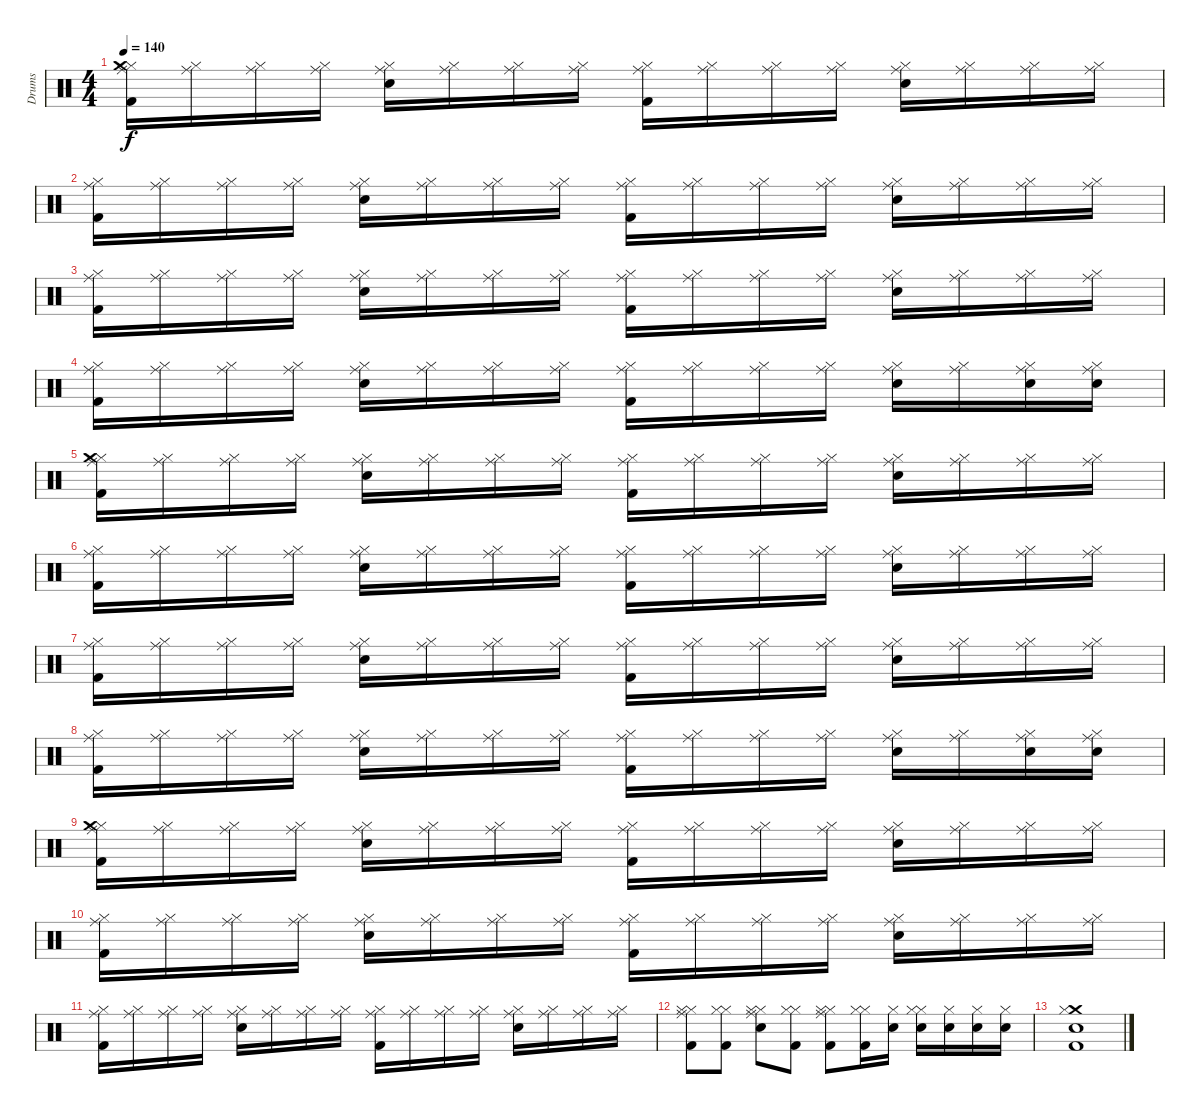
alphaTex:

\track ("Drums" "Drums") {instrument percussion}
\staff {score}
\articulation defaults
\ts (4 4)
\tempo 140
\clef neutral
\ks c
("Hi-Hat (closed)" "Crash medium (hit)" "Ride (middle)" "Kick (hit) 2").16{dy f} ("Hi-Hat (closed)" "Ride (middle)").16 ("Hi-Hat (closed)" "Ride (middle)").16 ("Hi-Hat (closed)" "Ride (middle)").16 ("Hi-Hat (closed)" "Ride (middle)" "Snare (hit) 2").16 ("Hi-Hat (closed)" "Ride (middle)").16 ("Hi-Hat (closed)" "Ride (middle)").16 ("Hi-Hat (closed)" "Ride (middle)").16 ("Hi-Hat (closed)" "Ride (middle)" "Kick (hit) 2").16 ("Hi-Hat (closed)" "Ride (middle)").16 ("Hi-Hat (closed)" "Ride (middle)").16 ("Hi-Hat (closed)" "Ride (middle)").16 ("Hi-Hat (closed)" "Ride (middle)" "Snare (hit) 2").16 ("Hi-Hat (closed)" "Ride (middle)").16 ("Hi-Hat (closed)" "Ride (middle)").16 ("Hi-Hat (closed)" "Ride (middle)").16 |
("Hi-Hat (closed)" "Ride (middle)" "Kick (hit) 2").16 ("Hi-Hat (closed)" "Ride (middle)").16 ("Hi-Hat (closed)" "Ride (middle)").16 ("Hi-Hat (closed)" "Ride (middle)").16 ("Hi-Hat (closed)" "Ride (middle)" "Snare (hit) 2").16 ("Hi-Hat (closed)" "Ride (middle)").16 ("Hi-Hat (closed)" "Ride (middle)").16 ("Hi-Hat (closed)" "Ride (middle)").16 ("Hi-Hat (closed)" "Ride (middle)" "Kick (hit) 2").16 ("Hi-Hat (closed)" "Ride (middle)").16 ("Hi-Hat (closed)" "Ride (middle)").16 ("Hi-Hat (closed)" "Ride (middle)").16 ("Hi-Hat (closed)" "Ride (middle)" "Snare (hit) 2").16 ("Hi-Hat (closed)" "Ride (middle)").16 ("Hi-Hat (closed)" "Ride (middle)").16 ("Hi-Hat (closed)" "Ride (middle)").16 |
("Hi-Hat (closed)" "Ride (middle)" "Kick (hit) 2").16 ("Hi-Hat (closed)" "Ride (middle)").16 ("Hi-Hat (closed)" "Ride (middle)").16 ("Hi-Hat (closed)" "Ride (middle)").16 ("Hi-Hat (closed)" "Ride (middle)" "Snare (hit) 2").16 ("Hi-Hat (closed)" "Ride (middle)").16 ("Hi-Hat (closed)" "Ride (middle)").16 ("Hi-Hat (closed)" "Ride (middle)").16 ("Hi-Hat (closed)" "Ride (middle)" "Kick (hit) 2").16 ("Hi-Hat (closed)" "Ride (middle)").16 ("Hi-Hat (closed)" "Ride (middle)").16 ("Hi-Hat (closed)" "Ride (middle)").16 ("Hi-Hat (closed)" "Ride (middle)" "Snare (hit) 2").16 ("Hi-Hat (closed)" "Ride (middle)").16 ("Hi-Hat (closed)" "Ride (middle)").16 ("Hi-Hat (closed)" "Ride (middle)").16 |
("Hi-Hat (closed)" "Ride (middle)" "Kick (hit) 2").16 ("Hi-Hat (closed)" "Ride (middle)").16 ("Hi-Hat (closed)" "Ride (middle)").16 ("Hi-Hat (closed)" "Ride (middle)").16 ("Hi-Hat (closed)" "Ride (middle)" "Snare (hit) 2").16 ("Hi-Hat (closed)" "Ride (middle)").16 ("Hi-Hat (closed)" "Ride (middle)").16 ("Hi-Hat (closed)" "Ride (middle)").16 ("Hi-Hat (closed)" "Ride (middle)" "Kick (hit) 2").16 ("Hi-Hat (closed)" "Ride (middle)").16 ("Hi-Hat (closed)" "Ride (middle)").16 ("Hi-Hat (closed)" "Ride (middle)").16 ("Hi-Hat (closed)" "Ride (middle)" "Snare (hit) 2").16 ("Hi-Hat (closed)" "Ride (middle)").16 ("Hi-Hat (closed)" "Ride (middle)" "Snare (hit) 2").16 ("Hi-Hat (closed)" "Ride (middle)" "Snare (hit) 2").16 |
("Hi-Hat (closed)" "Crash medium (hit)" "Ride (middle)" "Kick (hit) 2").16 ("Hi-Hat (closed)" "Ride (middle)").16 ("Hi-Hat (closed)" "Ride (middle)").16 ("Hi-Hat (closed)" "Ride (middle)").16 ("Hi-Hat (closed)" "Ride (middle)" "Snare (hit) 2").16 ("Hi-Hat (closed)" "Ride (middle)").16 ("Hi-Hat (closed)" "Ride (middle)").16 ("Hi-Hat (closed)" "Ride (middle)").16 ("Hi-Hat (closed)" "Ride (middle)" "Kick (hit) 2").16 ("Hi-Hat (closed)" "Ride (middle)").16 ("Hi-Hat (closed)" "Ride (middle)").16 ("Hi-Hat (closed)" "Ride (middle)").16 ("Hi-Hat (closed)" "Ride (middle)" "Snare (hit) 2").16 ("Hi-Hat (closed)" "Ride (middle)").16 ("Hi-Hat (closed)" "Ride (middle)").16 ("Hi-Hat (closed)" "Ride (middle)").16 |
("Hi-Hat (closed)" "Ride (middle)" "Kick (hit) 2").16 ("Hi-Hat (closed)" "Ride (middle)").16 ("Hi-Hat (closed)" "Ride (middle)").16 ("Hi-Hat (closed)" "Ride (middle)").16 ("Hi-Hat (closed)" "Ride (middle)" "Snare (hit) 2").16 ("Hi-Hat (closed)" "Ride (middle)").16 ("Hi-Hat (closed)" "Ride (middle)").16 ("Hi-Hat (closed)" "Ride (middle)").16 ("Hi-Hat (closed)" "Ride (middle)" "Kick (hit) 2").16 ("Hi-Hat (closed)" "Ride (middle)").16 ("Hi-Hat (closed)" "Ride (middle)").16 ("Hi-Hat (closed)" "Ride (middle)").16 ("Hi-Hat (closed)" "Ride (middle)" "Snare (hit) 2").16 ("Hi-Hat (closed)" "Ride (middle)").16 ("Hi-Hat (closed)" "Ride (middle)").16 ("Hi-Hat (closed)" "Ride (middle)").16 |
("Hi-Hat (closed)" "Ride (middle)" "Kick (hit) 2").16 ("Hi-Hat (closed)" "Ride (middle)").16 ("Hi-Hat (closed)" "Ride (middle)").16 ("Hi-Hat (closed)" "Ride (middle)").16 ("Hi-Hat (closed)" "Ride (middle)" "Snare (hit) 2").16 ("Hi-Hat (closed)" "Ride (middle)").16 ("Hi-Hat (closed)" "Ride (middle)").16 ("Hi-Hat (closed)" "Ride (middle)").16 ("Hi-Hat (closed)" "Ride (middle)" "Kick (hit) 2").16 ("Hi-Hat (closed)" "Ride (middle)").16 ("Hi-Hat (closed)" "Ride (middle)").16 ("Hi-Hat (closed)" "Ride (middle)").16 ("Hi-Hat (closed)" "Ride (middle)" "Snare (hit) 2").16 ("Hi-Hat (closed)" "Ride (middle)").16 ("Hi-Hat (closed)" "Ride (middle)").16 ("Hi-Hat (closed)" "Ride (middle)").16 |
("Hi-Hat (closed)" "Ride (middle)" "Kick (hit) 2").16 ("Hi-Hat (closed)" "Ride (middle)").16 ("Hi-Hat (closed)" "Ride (middle)").16 ("Hi-Hat (closed)" "Ride (middle)").16 ("Hi-Hat (closed)" "Ride (middle)" "Snare (hit) 2").16 ("Hi-Hat (closed)" "Ride (middle)").16 ("Hi-Hat (closed)" "Ride (middle)").16 ("Hi-Hat (closed)" "Ride (middle)").16 ("Hi-Hat (closed)" "Ride (middle)" "Kick (hit) 2").16 ("Hi-Hat (closed)" "Ride (middle)").16 ("Hi-Hat (closed)" "Ride (middle)").16 ("Hi-Hat (closed)" "Ride (middle)").16 ("Hi-Hat (closed)" "Ride (middle)" "Snare (hit) 2").16 ("Hi-Hat (closed)" "Ride (middle)").16 ("Hi-Hat (closed)" "Ride (middle)" "Snare (hit) 2").16 ("Hi-Hat (closed)" "Ride (middle)" "Snare (hit) 2").16 |
("Hi-Hat (closed)" "Crash medium (hit)" "Ride (middle)" "Kick (hit) 2").16 ("Hi-Hat (closed)" "Ride (middle)").16 ("Hi-Hat (closed)" "Ride (middle)").16 ("Hi-Hat (closed)" "Ride (middle)").16 ("Hi-Hat (closed)" "Ride (middle)" "Snare (hit) 2").16 ("Hi-Hat (closed)" "Ride (middle)").16 ("Hi-Hat (closed)" "Ride (middle)").16 ("Hi-Hat (closed)" "Ride (middle)").16 ("Hi-Hat (closed)" "Ride (middle)" "Kick (hit) 2").16 ("Hi-Hat (closed)" "Ride (middle)").16 ("Hi-Hat (closed)" "Ride (middle)").16 ("Hi-Hat (closed)" "Ride (middle)").16 ("Hi-Hat (closed)" "Ride (middle)" "Snare (hit) 2").16 ("Hi-Hat (closed)" "Ride (middle)").16 ("Hi-Hat (closed)" "Ride (middle)").16 ("Hi-Hat (closed)" "Ride (middle)").16 |
("Hi-Hat (closed)" "Ride (middle)" "Kick (hit) 2").16 ("Hi-Hat (closed)" "Ride (middle)").16 ("Hi-Hat (closed)" "Ride (middle)").16 ("Hi-Hat (closed)" "Ride (middle)").16 ("Hi-Hat (closed)" "Ride (middle)" "Snare (hit) 2").16 ("Hi-Hat (closed)" "Ride (middle)").16 ("Hi-Hat (closed)" "Ride (middle)").16 ("Hi-Hat (closed)" "Ride (middle)").16 ("Hi-Hat (closed)" "Ride (middle)" "Kick (hit) 2").16 ("Hi-Hat (closed)" "Ride (middle)").16 ("Hi-Hat (closed)" "Ride (middle)").16 ("Hi-Hat (closed)" "Ride (middle)").16 ("Hi-Hat (closed)" "Ride (middle)" "Snare (hit) 2").16 ("Hi-Hat (closed)" "Ride (middle)").16 ("Hi-Hat (closed)" "Ride (middle)").16 ("Hi-Hat (closed)" "Ride (middle)").16 |
("Hi-Hat (closed)" "Ride (middle)" "Kick (hit) 2").16 ("Hi-Hat (closed)" "Ride (middle)").16 ("Hi-Hat (closed)" "Ride (middle)").16 ("Hi-Hat (closed)" "Ride (middle)").16 ("Hi-Hat (closed)" "Ride (middle)" "Snare (hit) 2").16 ("Hi-Hat (closed)" "Ride (middle)").16 ("Hi-Hat (closed)" "Ride (middle)").16 ("Hi-Hat (closed)" "Ride (middle)").16 ("Hi-Hat (closed)" "Ride (middle)" "Kick (hit) 2").16 ("Hi-Hat (closed)" "Ride (middle)").16 ("Hi-Hat (closed)" "Ride (middle)").16 ("Hi-Hat (closed)" "Ride (middle)").16 ("Hi-Hat (closed)" "Ride (middle)" "Snare (hit) 2").16 ("Hi-Hat (closed)" "Ride (middle)").16 ("Hi-Hat (closed)" "Ride (middle)").16 ("Hi-Hat (closed)" "Ride (middle)").16 |
("Hi-Hat (closed)" "Ride (middle)" "Hi-Hat (closed)" "Kick (hit) 2").8 ("Hi-Hat (closed)" "Hi-Hat (closed)" "Kick (hit) 2").8 ("Hi-Hat (closed)" "Ride (middle)" "Hi-Hat (closed)" "Snare (hit) 2").8 ("Hi-Hat (closed)" "Hi-Hat (closed)" "Kick (hit) 2").8 ("Hi-Hat (closed)" "Ride (middle)" "Hi-Hat (closed)" "Kick (hit) 2").8 ("Hi-Hat (closed)" "Hi-Hat (closed)" "Kick (hit) 2").16 ("Hi-Hat (closed)" "Snare (hit) 2").16 ("Hi-Hat (closed)" "Hi-Hat (closed)" "Snare (hit) 2").16 ("Hi-Hat (closed)" "Snare (hit) 2").16 ("Hi-Hat (closed)" "Snare (hit) 2").16 ("Hi-Hat (closed)" "Snare (hit) 2").16 |
("Kick (hit) 2" "Crash medium (hit)" "Hi-Hat (closed)" "Snare (hit) 2").1
